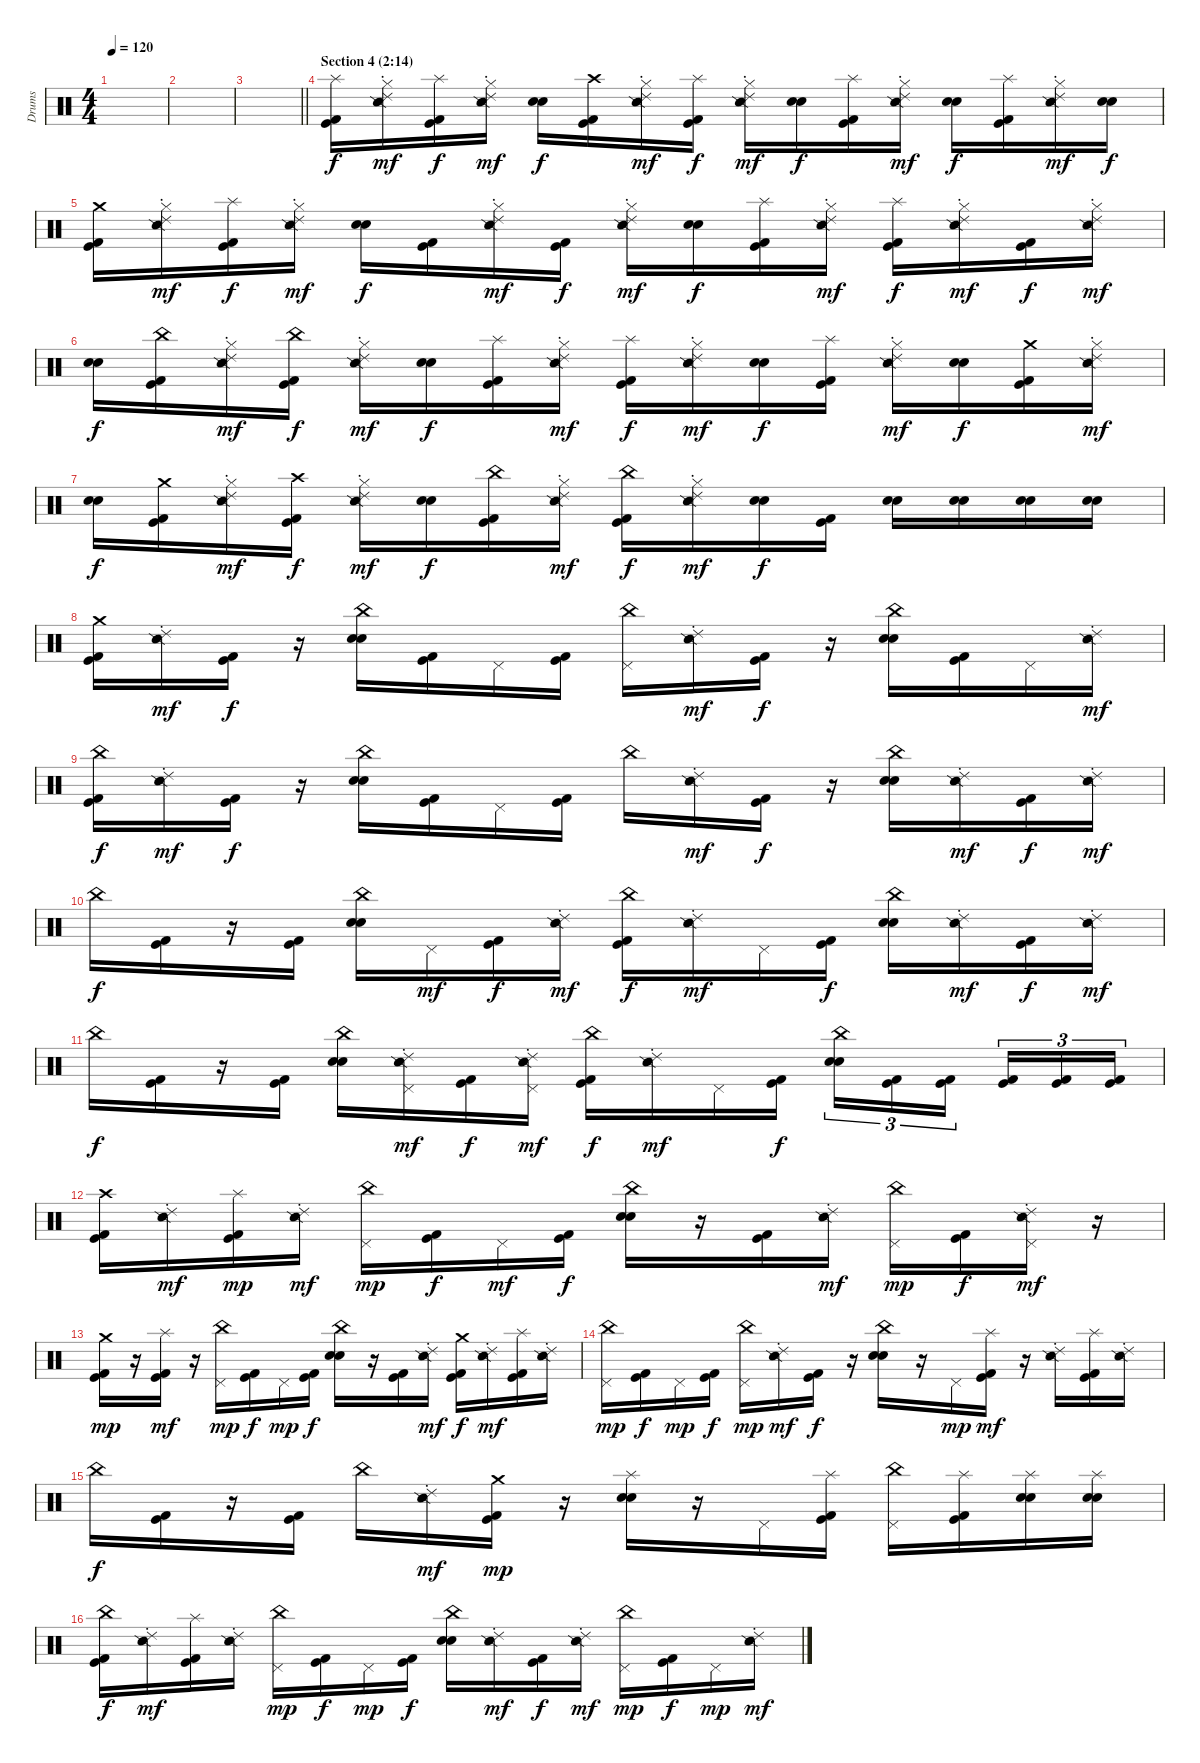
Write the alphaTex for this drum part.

\track ("Drums" "Drums") {instrument percussion}
\staff {score}
\articulation defaults
\ts (4 4)
\tempo 120
\clef neutral
\ks c
|
|
\barLineRight lightlight
|
\section ("" "Section 4 (2:14)")
("Splash (hit)" "Kick (hit) 2" "Kick (hit)").16 ("Hi-Hat (closed)" "Snare (side stick) 2" "Ride (choke) 2").16{dy mf} ("Splash (hit)" "Kick (hit) 2" "Kick (hit)").16{dy f} ("Hi-Hat (closed)" "Snare (side stick) 2" "Ride (choke) 2").16{dy mf} ("Electric Snare (hit)" "Electric Snare (hit)").16{dy f} ("Crash high (hit)" "Kick (hit) 2" "Kick (hit)").16 ("Hi-Hat (closed)" "Snare (side stick) 2" "Ride (choke) 2").16{dy mf} ("Splash (hit)" "Kick (hit) 2" "Kick (hit)").16{dy f} ("Hi-Hat (closed)" "Snare (side stick) 2" "Ride (choke) 2").16{dy mf} ("Electric Snare (hit)" "Electric Snare (hit)").16{dy f} ("Splash (hit)" "Kick (hit) 2" "Kick (hit)").16 ("Hi-Hat (closed)" "Snare (side stick) 2" "Ride (choke) 2").16{dy mf} ("Electric Snare (hit)" "Electric Snare (hit)").16{dy f} ("Splash (hit)" "Kick (hit) 2" "Kick (hit)").16 ("Hi-Hat (closed)" "Snare (side stick) 2" "Ride (choke) 2").16{dy mf} ("Electric Snare (hit)" "Electric Snare (hit)").16{dy f} |
("Crash medium (hit)" "Kick (hit) 2" "Kick (hit)").16 ("Hi-Hat (closed)" "Snare (side stick) 2" "Ride (choke) 2").16{dy mf} ("Splash (hit)" "Kick (hit) 2" "Kick (hit)").16{dy f} ("Hi-Hat (closed)" "Snare (side stick) 2" "Ride (choke) 2").16{dy mf} ("Electric Snare (hit)" "Electric Snare (hit)").16{dy f} ("Kick (hit) 2" "Kick (hit)").16 ("Hi-Hat (closed)" "Snare (side stick) 2" "Ride (choke) 2").16{dy mf} ("Kick (hit) 2" "Kick (hit)").16{dy f} ("Hi-Hat (closed)" "Snare (side stick) 2" "Ride (choke) 2").16{dy mf} ("Electric Snare (hit)" "Electric Snare (hit)").16{dy f} ("Splash (hit)" "Kick (hit) 2" "Kick (hit)").16 ("Hi-Hat (closed)" "Snare (side stick) 2" "Ride (choke) 2").16{dy mf} ("Splash (hit)" "Kick (hit) 2" "Kick (hit)").16{dy f} ("Hi-Hat (closed)" "Snare (side stick) 2" "Ride (choke) 2").16{dy mf} ("Kick (hit) 2" "Kick (hit)").16{dy f} ("Hi-Hat (closed)" "Snare (side stick) 2" "Ride (choke) 2").16{dy mf} |
("Electric Snare (hit)" "Electric Snare (hit)").16{dy f} ("China (hit)" "Kick (hit) 2" "Kick (hit)").16 ("Hi-Hat (closed)" "Snare (side stick) 2" "Ride (choke) 2").16{dy mf} ("China (hit)" "Kick (hit) 2" "Kick (hit)").16{dy f} ("Hi-Hat (closed)" "Snare (side stick) 2" "Ride (choke) 2").16{dy mf} ("Electric Snare (hit)" "Electric Snare (hit)").16{dy f} ("Splash (hit)" "Kick (hit) 2" "Kick (hit)").16 ("Hi-Hat (closed)" "Snare (side stick) 2" "Ride (choke) 2").16{dy mf} ("Splash (hit)" "Kick (hit) 2" "Kick (hit)").16{dy f} ("Hi-Hat (closed)" "Snare (side stick) 2" "Ride (choke) 2").16{dy mf} ("Electric Snare (hit)" "Electric Snare (hit)").16{dy f} ("Splash (hit)" "Kick (hit) 2" "Kick (hit)").16 ("Hi-Hat (closed)" "Snare (side stick) 2" "Ride (choke) 2").16{dy mf} ("Electric Snare (hit)" "Electric Snare (hit)").16{dy f} ("Crash medium (hit)" "Kick (hit) 2" "Kick (hit)").16 ("Hi-Hat (closed)" "Snare (side stick) 2" "Ride (choke) 2").16{dy mf} |
("Electric Snare (hit)" "Electric Snare (hit)").16{dy f} ("Crash medium (hit)" "Kick (hit) 2" "Kick (hit)").16 ("Hi-Hat (closed)" "Snare (side stick) 2" "Ride (choke) 2").16{dy mf} ("Crash high (hit)" "Kick (hit) 2" "Kick (hit)").16{dy f} ("Hi-Hat (closed)" "Snare (side stick) 2" "Ride (choke) 2").16{dy mf} ("Electric Snare (hit)" "Electric Snare (hit)").16{dy f} ("China (hit)" "Kick (hit) 2" "Kick (hit)").16 ("Hi-Hat (closed)" "Snare (side stick) 2" "Ride (choke) 2").16{dy mf} ("China (hit)" "Kick (hit) 2" "Kick (hit)").16{dy f} ("Hi-Hat (closed)" "Snare (side stick) 2" "Ride (choke) 2").16{dy mf} ("Electric Snare (hit)" "Electric Snare (hit)").16{dy f} ("Kick (hit) 2" "Kick (hit)").16 ("Electric Snare (hit)" "Electric Snare (hit)").16 ("Electric Snare (hit)" "Electric Snare (hit)").16 ("Electric Snare (hit)" "Electric Snare (hit)").16 ("Electric Snare (hit)" "Electric Snare (hit)").16 |
("Crash medium (hit)" "Kick (hit) 2" "Kick (hit)").16 ("Snare (side stick) 2" "Ride (choke) 2").16{dy mf} ("Kick (hit) 2" "Kick (hit)").16{dy f} r.16 ("China (hit)" "Electric Snare (hit)" "Electric Snare (hit)").16 ("Kick (hit) 2" "Kick (hit)").16 "Pedal Hi-Hat (hit)".16 ("Kick (hit) 2" "Kick (hit)").16 ("Pedal Hi-Hat (hit)" "China (hit)").16 ("Snare (side stick) 2" "Ride (choke) 2").16{dy mf} ("Kick (hit) 2" "Kick (hit)").16{dy f} r.16 ("China (hit)" "Electric Snare (hit)" "Electric Snare (hit)").16 ("Kick (hit) 2" "Kick (hit)").16 "Pedal Hi-Hat (hit)".16 ("Snare (side stick) 2" "Ride (choke) 2").16{dy mf} |
("China (hit)" "Kick (hit) 2" "Kick (hit)").16{dy f} ("Snare (side stick) 2" "Ride (choke) 2").16{dy mf} ("Kick (hit) 2" "Kick (hit)").16{dy f} r.16 ("China (hit)" "Electric Snare (hit)" "Electric Snare (hit)").16 ("Kick (hit) 2" "Kick (hit)").16 "Pedal Hi-Hat (hit)".16 ("Kick (hit) 2" "Kick (hit)").16 "China (hit)".16 ("Snare (side stick) 2" "Ride (choke) 2").16{dy mf} ("Kick (hit) 2" "Kick (hit)").16{dy f} r.16 ("China (hit)" "Electric Snare (hit)" "Electric Snare (hit)").16 ("Snare (side stick) 2" "Ride (choke) 2").16{dy mf} ("Kick (hit) 2" "Kick (hit)").16{dy f} ("Snare (side stick) 2" "Ride (choke) 2").16{dy mf} |
"China (hit)".16{dy f} ("Kick (hit) 2" "Kick (hit)").16 r.16 ("Kick (hit) 2" "Kick (hit)").16 ("China (hit)" "Electric Snare (hit)" "Electric Snare (hit)").16 "Pedal Hi-Hat (hit)".16{dy mf} ("Kick (hit) 2" "Kick (hit)").16{dy f} ("Snare (side stick) 2" "Ride (choke) 2").16{dy mf} ("China (hit)" "Kick (hit) 2" "Kick (hit)").16{dy f} ("Snare (side stick) 2" "Ride (choke) 2").16{dy mf} "Pedal Hi-Hat (hit)".16 ("Kick (hit) 2" "Kick (hit)").16{dy f} ("China (hit)" "Electric Snare (hit)" "Electric Snare (hit)").16 ("Snare (side stick) 2" "Ride (choke) 2").16{dy mf} ("Kick (hit) 2" "Kick (hit)").16{dy f} ("Snare (side stick) 2" "Ride (choke) 2").16{dy mf} |
"China (hit)".16{dy f} ("Kick (hit) 2" "Kick (hit)").16 r.16 ("Kick (hit) 2" "Kick (hit)").16 ("China (hit)" "Electric Snare (hit)" "Electric Snare (hit)").16 ("Pedal Hi-Hat (hit)" "Snare (side stick) 2" "Ride (choke) 2").16{dy mf} ("Kick (hit) 2" "Kick (hit)").16{dy f} ("Pedal Hi-Hat (hit)" "Snare (side stick) 2" "Ride (choke) 2").16{dy mf} ("China (hit)" "Kick (hit) 2" "Kick (hit)").16{dy f} ("Snare (side stick) 2" "Ride (choke) 2").16{dy mf} "Pedal Hi-Hat (hit)".16 ("Kick (hit) 2" "Kick (hit)").16{dy f} ("China (hit)" "Electric Snare (hit)" "Electric Snare (hit)").16{tu (3 2)} ("Kick (hit) 2" "Kick (hit)").16{tu (3 2)} ("Kick (hit) 2" "Kick (hit)").16{tu (3 2) beam splitsecondary} ("Kick (hit) 2" "Kick (hit)").16{tu (3 2)} ("Kick (hit) 2" "Kick (hit)").16{tu (3 2)} ("Kick (hit) 2" "Kick (hit)").16{tu (3 2)} |
("Crash high (hit)" "Kick (hit) 2" "Kick (hit)").16 ("Snare (side stick) 2" "Ride (choke) 2").16{dy mf} ("Splash (hit)" "Kick (hit) 2" "Kick (hit)").16{dy mp} ("Snare (side stick) 2" "Ride (choke) 2").16{dy mf} ("China (hit)" "Pedal Hi-Hat (hit)").16{dy mp} ("Kick (hit) 2" "Kick (hit)").16{dy f} "Pedal Hi-Hat (hit)".16{dy mf} ("Kick (hit) 2" "Kick (hit)").16{dy f} ("China (hit)" "Electric Snare (hit)" "Electric Snare (hit)").16 r.16 ("Kick (hit) 2" "Kick (hit)").16 ("Snare (side stick) 2" "Ride (choke) 2").16{dy mf} ("China (hit)" "Pedal Hi-Hat (hit)").16{dy mp} ("Kick (hit) 2" "Kick (hit)").16{dy f} ("Pedal Hi-Hat (hit)" "Snare (side stick) 2" "Ride (choke) 2").16{dy mf} r.16 |
("Crash medium (hit)" "Kick (hit) 2" "Kick (hit)").16{dy mp} r.16 ("Splash (hit)" "Kick (hit) 2" "Kick (hit)").16{dy mf} r.16 ("China (hit)" "Pedal Hi-Hat (hit)").16{dy mp} ("Kick (hit) 2" "Kick (hit)").16{dy f} "Pedal Hi-Hat (hit)".16{dy mp} ("Kick (hit) 2" "Kick (hit)").16{dy f} ("China (hit)" "Electric Snare (hit)" "Electric Snare (hit)").16 r.16 ("Kick (hit) 2" "Kick (hit)").16 ("Snare (side stick) 2" "Ride (choke) 2").16{dy mf} ("Crash medium (hit)" "Kick (hit) 2" "Kick (hit)").16{dy f} ("Snare (side stick) 2" "Ride (choke) 2").16{dy mf} ("Splash (hit)" "Kick (hit) 2" "Kick (hit)").16 ("Snare (side stick) 2" "Ride (choke) 2").16 |
("Pedal Hi-Hat (hit)" "China (hit)").16{dy mp} ("Kick (hit) 2" "Kick (hit)").16{dy f} "Pedal Hi-Hat (hit)".16{dy mp} ("Kick (hit) 2" "Kick (hit)").16{dy f} ("Pedal Hi-Hat (hit)" "China (hit)").16{dy mp} ("Snare (side stick) 2" "Ride (choke) 2").16{dy mf} ("Kick (hit) 2" "Kick (hit)").16{dy f} r.16 ("China (hit)" "Electric Snare (hit)" "Electric Snare (hit)").16 r.16 "Pedal Hi-Hat (hit)".16{dy mp} ("Splash (hit)" "Kick (hit) 2" "Kick (hit)").16{dy mf} r.16 ("Snare (side stick) 2" "Ride (choke) 2").16 ("Splash (hit)" "Kick (hit) 2" "Kick (hit)").16 ("Snare (side stick) 2" "Ride (choke) 2").16 |
"China (hit)".16{dy f} ("Kick (hit) 2" "Kick (hit)").16 r.16 ("Kick (hit) 2" "Kick (hit)").16 "China (hit)".16 ("Snare (side stick) 2" "Ride (choke) 2").16{dy mf} ("Crash medium (hit)" "Kick (hit) 2" "Kick (hit)").16{dy mp} r.16 ("Splash (hit)" "Electric Snare (hit)" "Electric Snare (hit)").16 r.16 "Pedal Hi-Hat (hit)".16 ("Splash (hit)" "Kick (hit) 2" "Kick (hit)").16 ("Pedal Hi-Hat (hit)" "China (hit)").16 ("Splash (hit)" "Kick (hit) 2" "Kick (hit)").16 ("Splash (hit)" "Electric Snare (hit)" "Electric Snare (hit)").16 ("Splash (hit)" "Electric Snare (hit)" "Electric Snare (hit)").16 |
("China (hit)" "Kick (hit) 2" "Kick (hit)").16{dy f} ("Snare (side stick) 2" "Ride (choke) 2").16{dy mf} ("Splash (hit)" "Kick (hit) 2" "Kick (hit)").16 ("Snare (side stick) 2" "Ride (choke) 2").16 ("Pedal Hi-Hat (hit)" "China (hit)").16{dy mp} ("Kick (hit) 2" "Kick (hit)").16{dy f} "Pedal Hi-Hat (hit)".16{dy mp} ("Kick (hit) 2" "Kick (hit)").16{dy f} ("China (hit)" "Electric Snare (hit)" "Electric Snare (hit)").16 ("Snare (side stick) 2" "Ride (choke) 2").16{dy mf} ("Kick (hit) 2" "Kick (hit)").16{dy f} ("Snare (side stick) 2" "Ride (choke) 2").16{dy mf} ("Pedal Hi-Hat (hit)" "China (hit)").16{dy mp} ("Kick (hit) 2" "Kick (hit)").16{dy f} "Pedal Hi-Hat (hit)".16{dy mp} ("Snare (side stick) 2" "Ride (choke) 2").16{dy mf}
